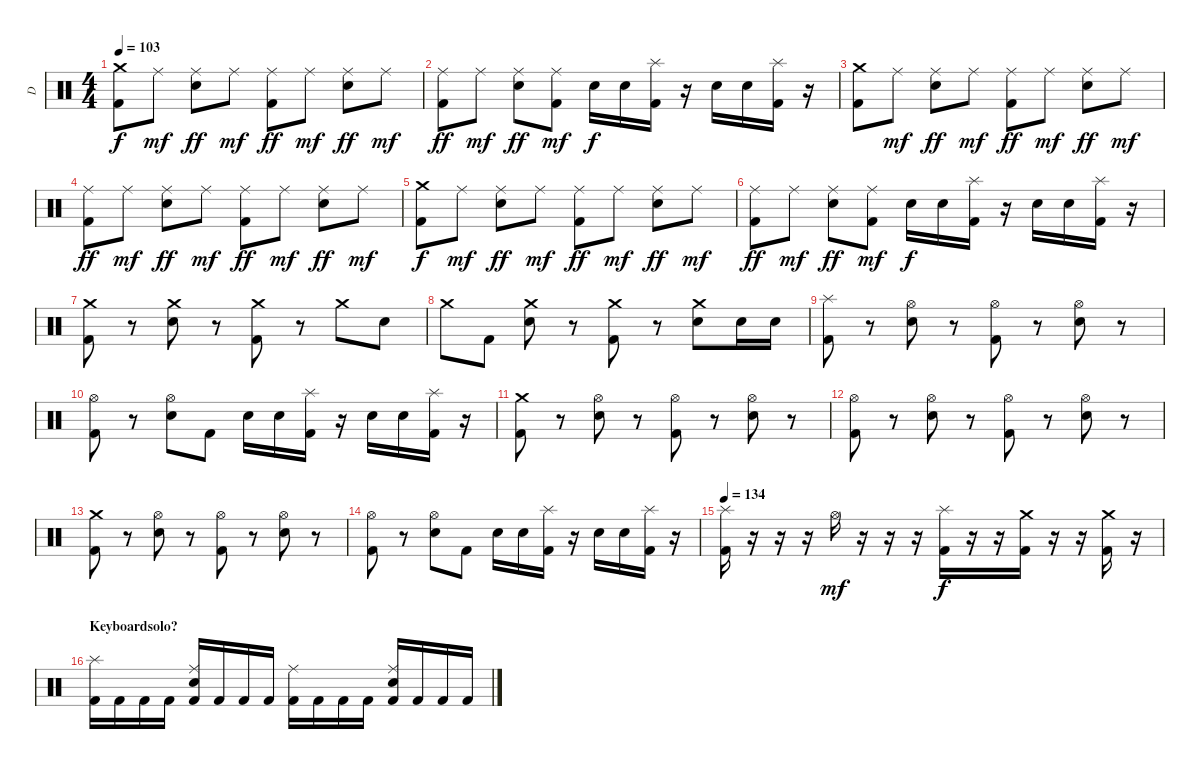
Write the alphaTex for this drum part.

\track ("D" "D") {instrument percussion}
\staff {score}
\articulation defaults
\ts (4 4)
\tempo 103
\clef neutral
\ks c
("Crash medium (hit)" "Kick (hit) 2").8{dy f} "Ride (middle)".8{dy mf} ("Ride (middle)" "Snare (hit) 2").8{dy ff} "Ride (middle)".8{dy mf} ("Ride (middle)" "Kick (hit) 2").8{dy ff} "Ride (middle)".8{dy mf} ("Ride (middle)" "Snare (hit) 2").8{dy ff} "Ride (middle)".8{dy mf} |
("Ride (middle)" "Kick (hit) 2").8{dy ff} "Ride (middle)".8{dy mf} ("Ride (middle)" "Snare (hit) 2").8{dy ff} ("Ride (middle)" "Kick (hit) 2").8{dy mf} "Snare (hit) 2".16{dy f} "Snare (hit) 2".16 ("Splash (hit)" "Kick (hit) 2").16 r.16 "Snare (hit) 2".16 "Snare (hit) 2".16 ("Splash (hit)" "Kick (hit) 2").16 r.16 |
("Crash medium (hit)" "Kick (hit) 2").8 "Ride (middle)".8{dy mf} ("Ride (middle)" "Snare (hit) 2").8{dy ff} "Ride (middle)".8{dy mf} ("Ride (middle)" "Kick (hit) 2").8{dy ff} "Ride (middle)".8{dy mf} ("Ride (middle)" "Snare (hit) 2").8{dy ff} "Ride (middle)".8{dy mf} |
("Ride (middle)" "Kick (hit) 2").8{dy ff} "Ride (middle)".8{dy mf} ("Ride (middle)" "Snare (hit) 2").8{dy ff} "Ride (middle)".8{dy mf} ("Ride (middle)" "Kick (hit) 2").8{dy ff} "Ride (middle)".8{dy mf} ("Ride (middle)" "Snare (hit) 2").8{dy ff} "Ride (middle)".8{dy mf} |
("Crash medium (hit)" "Kick (hit) 2").8{dy f} "Ride (middle)".8{dy mf} ("Ride (middle)" "Snare (hit) 2").8{dy ff} "Ride (middle)".8{dy mf} ("Ride (middle)" "Kick (hit) 2").8{dy ff} "Ride (middle)".8{dy mf} ("Ride (middle)" "Snare (hit) 2").8{dy ff} "Ride (middle)".8{dy mf} |
("Ride (middle)" "Kick (hit) 2").8{dy ff} "Ride (middle)".8{dy mf} ("Ride (middle)" "Snare (hit) 2").8{dy ff} ("Ride (middle)" "Kick (hit) 2").8{dy mf} "Snare (hit) 2".16{dy f} "Snare (hit) 2".16 ("Splash (hit)" "Kick (hit) 2").16 r.16 "Snare (hit) 2".16 "Snare (hit) 2".16 ("Splash (hit)" "Kick (hit) 2").16 r.16 |
("Crash medium (hit)" "Kick (hit) 2").8 r.8 ("Crash medium (hit)" "Snare (hit) 2").8 r.8 ("Crash medium (hit)" "Kick (hit) 2").8 r.8 "Crash medium (hit)".8 "Snare (hit) 2".8 |
"Crash medium (hit)".8 "Kick (hit) 2".8 ("Crash medium (hit)" "Snare (hit) 2").8 r.8 ("Crash medium (hit)" "Kick (hit) 2").8 r.8 ("Crash medium (hit)" "Snare (hit) 2").8 "Snare (hit) 2".16 "Snare (hit) 2".16 |
("Splash (hit)" "Kick (hit) 2").8 r.8 ("Hi-Hat (open)" "Snare (hit) 2").8 r.8 ("Hi-Hat (open)" "Kick (hit) 2").8 r.8 ("Hi-Hat (open)" "Snare (hit) 2").8 r.8 |
("Hi-Hat (open)" "Kick (hit) 2").8 r.8 ("Hi-Hat (open)" "Snare (hit) 2").8 "Kick (hit) 2".8 "Snare (hit) 2".16 "Snare (hit) 2".16 ("Splash (hit)" "Kick (hit) 2").16 r.16 "Snare (hit) 2".16 "Snare (hit) 2".16 ("Splash (hit)" "Kick (hit) 2").16 r.16 |
("Crash medium (hit)" "Kick (hit) 2").8 r.8 ("Hi-Hat (open)" "Snare (hit) 2").8 r.8 ("Hi-Hat (open)" "Kick (hit) 2").8 r.8 ("Hi-Hat (open)" "Snare (hit) 2").8 r.8 |
("Hi-Hat (open)" "Kick (hit) 2").8 r.8 ("Hi-Hat (open)" "Snare (hit) 2").8 r.8 ("Hi-Hat (open)" "Kick (hit) 2").8 r.8 ("Hi-Hat (open)" "Snare (hit) 2").8 r.8 |
("Crash medium (hit)" "Kick (hit) 2").8 r.8 ("Hi-Hat (open)" "Snare (hit) 2").8 r.8 ("Hi-Hat (open)" "Kick (hit) 2").8 r.8 ("Hi-Hat (open)" "Snare (hit) 2").8 r.8 |
("Hi-Hat (open)" "Kick (hit) 2").8 r.8 ("Hi-Hat (open)" "Snare (hit) 2").8 "Kick (hit) 2".8 "Snare (hit) 2".16 "Snare (hit) 2".16 ("Splash (hit)" "Kick (hit) 2").16 r.16 "Snare (hit) 2".16 "Snare (hit) 2".16 ("Splash (hit)" "Kick (hit) 2").16 r.16 |
\tempo 134
("Splash (hit)" "Kick (hit) 2").16 r.16 r.16 r.16 "Hi-Hat (open)".16{dy mf} r.16 r.16 r.16 ("Splash (hit)" "Kick (hit) 2").16{dy f} r.16 r.16 ("Crash medium (hit)" "Kick (hit) 2").16 r.16 r.16 ("Crash medium (hit)" "Kick (hit) 2").16 r.16 |
\section ("" "Keyboardsolo?")
("Splash (hit)" "Kick (hit) 2").16 "Kick (hit) 2".16 "Kick (hit) 2".16 "Kick (hit) 2".16 ("Ride (middle)" "Snare (hit) 2" "Kick (hit) 2").16 "Kick (hit) 2".16 "Kick (hit) 2".16 "Kick (hit) 2".16 ("Ride (middle)" "Kick (hit) 2").16 "Kick (hit) 2".16 "Kick (hit) 2".16 "Kick (hit) 2".16 ("Ride (middle)" "Snare (hit) 2" "Kick (hit) 2").16 "Kick (hit) 2".16 "Kick (hit) 2".16 "Kick (hit) 2".16
